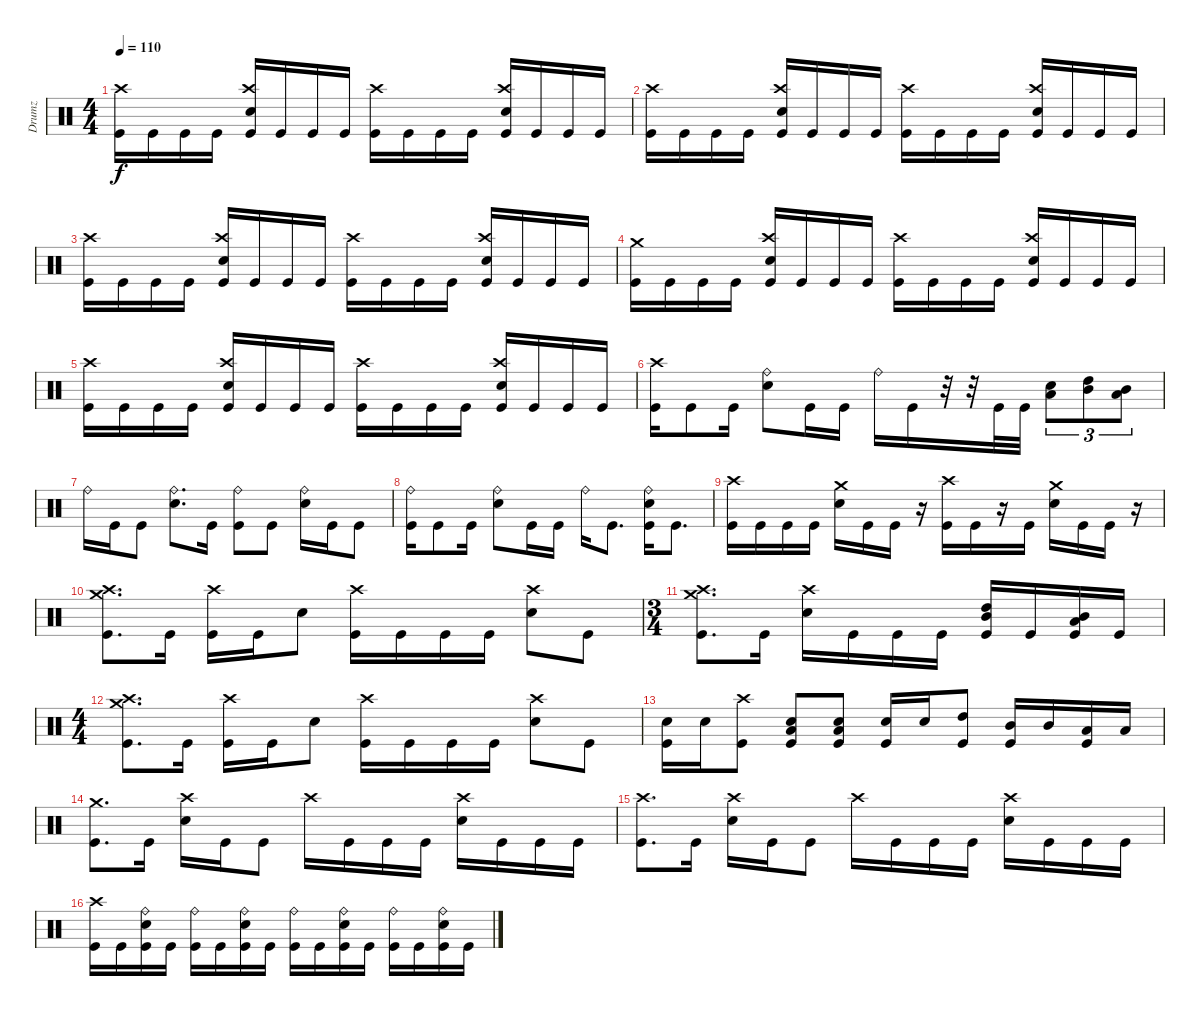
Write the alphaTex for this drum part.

\track ("Drumz" "Drumz") {instrument percussion}
\staff {score}
\articulation defaults
\ts (4 4)
\tempo 110
\clef neutral
\ks c
("Kick (hit)" "Crash high (hit)").16{dy f} "Kick (hit)".16 "Kick (hit)".16 "Kick (hit)".16 ("Snare (hit) 2" "Kick (hit)" "Crash high (hit)").16 "Kick (hit)".16 "Kick (hit)".16 "Kick (hit)".16 ("Kick (hit)" "Crash high (hit)").16 "Kick (hit)".16 "Kick (hit)".16 "Kick (hit)".16 ("Snare (hit) 2" "Kick (hit)" "Crash high (hit)").16 "Kick (hit)".16 "Kick (hit)".16 "Kick (hit)".16 |
("Kick (hit)" "Crash high (hit)").16 "Kick (hit)".16 "Kick (hit)".16 "Kick (hit)".16 ("Snare (hit) 2" "Kick (hit)" "Crash high (hit)").16 "Kick (hit)".16 "Kick (hit)".16 "Kick (hit)".16 ("Kick (hit)" "Crash high (hit)").16 "Kick (hit)".16 "Kick (hit)".16 "Kick (hit)".16 ("Snare (hit) 2" "Kick (hit)" "Crash high (hit)").16 "Kick (hit)".16 "Kick (hit)".16 "Kick (hit)".16 |
("Kick (hit)" "Crash high (hit)").16 "Kick (hit)".16 "Kick (hit)".16 "Kick (hit)".16 ("Snare (hit) 2" "Kick (hit)" "Crash high (hit)").16 "Kick (hit)".16 "Kick (hit)".16 "Kick (hit)".16 ("Kick (hit)" "Crash high (hit)").16 "Kick (hit)".16 "Kick (hit)".16 "Kick (hit)".16 ("Snare (hit) 2" "Kick (hit)" "Crash high (hit)").16 "Kick (hit)".16 "Kick (hit)".16 "Kick (hit)".16 |
("Kick (hit)" "Crash medium (hit)").16 "Kick (hit)".16 "Kick (hit)".16 "Kick (hit)".16 ("Snare (hit) 2" "Kick (hit)" "Crash high (hit)").16 "Kick (hit)".16 "Kick (hit)".16 "Kick (hit)".16 ("Kick (hit)" "Crash high (hit)").16 "Kick (hit)".16 "Kick (hit)".16 "Kick (hit)".16 ("Snare (hit) 2" "Kick (hit)" "Crash high (hit)").16 "Kick (hit)".16 "Kick (hit)".16 "Kick (hit)".16 |
("Kick (hit)" "Crash high (hit)").16 "Kick (hit)".16 "Kick (hit)".16 "Kick (hit)".16 ("Snare (hit) 2" "Kick (hit)" "Crash high (hit)").16 "Kick (hit)".16 "Kick (hit)".16 "Kick (hit)".16 ("Kick (hit)" "Crash high (hit)").16 "Kick (hit)".16 "Kick (hit)".16 "Kick (hit)".16 ("Snare (hit) 2" "Kick (hit)" "Crash high (hit)").16 "Kick (hit)".16 "Kick (hit)".16 "Kick (hit)".16 |
("Crash high (hit)" "Kick (hit)").16 "Kick (hit)".8 "Kick (hit)".16 ("Snare (hit) 2" "Ride (bell)").8 "Kick (hit)".16 "Kick (hit)".16 "Ride (bell)".16 "Kick (hit)".16 r.32 r.32 "Kick (hit)".32 "Kick (hit)".32 ("Snare (hit) 2" "Low Tom (hit)").8{tu (3 2)} ("Mid Tom (hit)" "High Tom (hit)").8{tu (3 2)} ("Low Tom (hit)" "Mid Tom (hit)").8{tu (3 2)} |
"Ride (bell)".16 "Kick (hit)".16 "Kick (hit)".8 ("Snare (hit) 2" "Ride (bell)").8{d} "Kick (hit)".16 ("Kick (hit)" "Ride (bell)").8 "Kick (hit)".8 ("Snare (hit) 2" "Ride (bell)").16 "Kick (hit)".16 "Kick (hit)".8 |
("Ride (bell)" "Kick (hit)").16 "Kick (hit)".8 "Kick (hit)".16 ("Snare (hit) 2" "Ride (bell)").8 "Kick (hit)".16 "Kick (hit)".16 "Ride (bell)".16 "Kick (hit)".8{d} ("Snare (hit) 2" "Ride (bell)" "Kick (hit)").16 "Kick (hit)".8{d} |
("Kick (hit)" "Crash high (hit)").16 "Kick (hit)".16 "Kick (hit)".16 "Kick (hit)".16 ("Snare (hit) 2" "Crash medium (hit)").16 "Kick (hit)".16 "Kick (hit)".16 r.16 ("Kick (hit)" "Crash high (hit)").16 "Kick (hit)".16 r.16 "Kick (hit)".16 ("Snare (hit) 2" "Crash medium (hit)").16 "Kick (hit)".16 "Kick (hit)".16 r.16 |
("Kick (hit)" "Crash high (hit)" "Crash medium (hit)").8{d} "Kick (hit)".16 ("Crash high (hit)" "Kick (hit)").16 "Kick (hit)".16 "Snare (hit) 2".8 ("Crash high (hit)" "Kick (hit)").16 "Kick (hit)".16 "Kick (hit)".16 "Kick (hit)".16 ("Crash high (hit)" "Snare (hit) 2").8 "Kick (hit)".8 |
\ts (3 4)
("Kick (hit)" "Crash high (hit)" "Crash medium (hit)").8{d} "Kick (hit)".16 ("Crash high (hit)" "Snare (hit) 2").16 "Kick (hit)".16 "Kick (hit)".16 "Kick (hit)".16 ("High Tom (hit)" "Mid Tom (hit)" "Kick (hit)").16 "Kick (hit)".16 ("Mid Tom (hit)" "Low Tom (hit)" "Kick (hit)").16 "Kick (hit)".16 |
\ts (4 4)
("Kick (hit)" "Crash high (hit)" "Crash medium (hit)").8{d} "Kick (hit)".16 ("Crash high (hit)" "Kick (hit)").16 "Kick (hit)".16 "Snare (hit) 2".8 ("Crash high (hit)" "Kick (hit)").16 "Kick (hit)".16 "Kick (hit)".16 "Kick (hit)".16 ("Crash high (hit)" "Snare (hit) 2").8 "Kick (hit)".8 |
("Snare (hit) 2" "Kick (hit)").16 "Snare (hit) 2".16 ("Kick (hit)" "Crash high (hit)").8 ("Snare (hit) 2" "Kick (hit)" "Low Tom (hit)").8 ("Kick (hit)" "Snare (hit) 2" "Low Tom (hit)").8 ("Snare (hit) 2" "Kick (hit)").16 "Snare (hit) 2".16 ("Kick (hit)" "High Tom (hit)").8 ("Kick (hit)" "Mid Tom (hit)").16 "Mid Tom (hit)".16 ("Low Tom (hit)" "Kick (hit)").16 "Low Tom (hit)".16 |
("Kick (hit)" "Crash medium (hit)").8{d} "Kick (hit)".16 ("Snare (hit) 2" "Crash high (hit)").16 "Kick (hit)".16 "Kick (hit)".8 "Crash high (hit)".16 "Kick (hit)".16 "Kick (hit)".16 "Kick (hit)".16 ("Snare (hit) 2" "Crash high (hit)").16 "Kick (hit)".16 "Kick (hit)".16 "Kick (hit)".16 |
("Kick (hit)" "Crash high (hit)").8{d} "Kick (hit)".16 ("Snare (hit) 2" "Crash high (hit)").16 "Kick (hit)".16 "Kick (hit)".8 "Crash high (hit)".16 "Kick (hit)".16 "Kick (hit)".16 "Kick (hit)".16 ("Snare (hit) 2" "Crash high (hit)").16 "Kick (hit)".16 "Kick (hit)".16 "Kick (hit)".16 |
("Crash high (hit)" "Kick (hit)").16 "Kick (hit)".16 ("Kick (hit)" "Ride (bell)" "Snare (hit) 2").16 "Kick (hit)".16 ("Kick (hit)" "Ride (bell)").16 "Kick (hit)".16 ("Kick (hit)" "Ride (bell)" "Snare (hit) 2").16 "Kick (hit)".16 ("Kick (hit)" "Ride (bell)").16 "Kick (hit)".16 ("Kick (hit)" "Ride (bell)" "Snare (hit) 2").16 "Kick (hit)".16 ("Kick (hit)" "Ride (bell)").16 "Kick (hit)".16 ("Kick (hit)" "Ride (bell)" "Snare (hit) 2").16 "Kick (hit)".16
